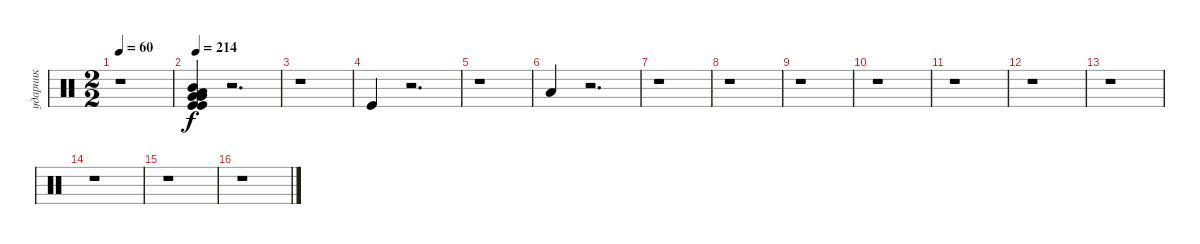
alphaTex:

\track ("ударник" "ударник") {instrument percussion}
\staff {score}
\articulation defaults
\ts (2 2)
\tempo 60
\clef neutral
\ks c
r.1{dy f} |
\tempo 214
("Kick (hit)" "Low Floor Tom (hit)" "Mid Tom (hit)" "Kick (hit)" "Very Low Tom (hit)" "Very Low Tom (hit)").4 r.2{d} |
r.1 |
"Kick (hit)".4 r.2{d} |
r.1 |
"Low Floor Tom (hit)".4 r.2{d} |
r.1 |
r.1 |
r.1 |
r.1 |
r.1 |
r.1 |
r.1 |
r.1 |
r.1 |
r.1
